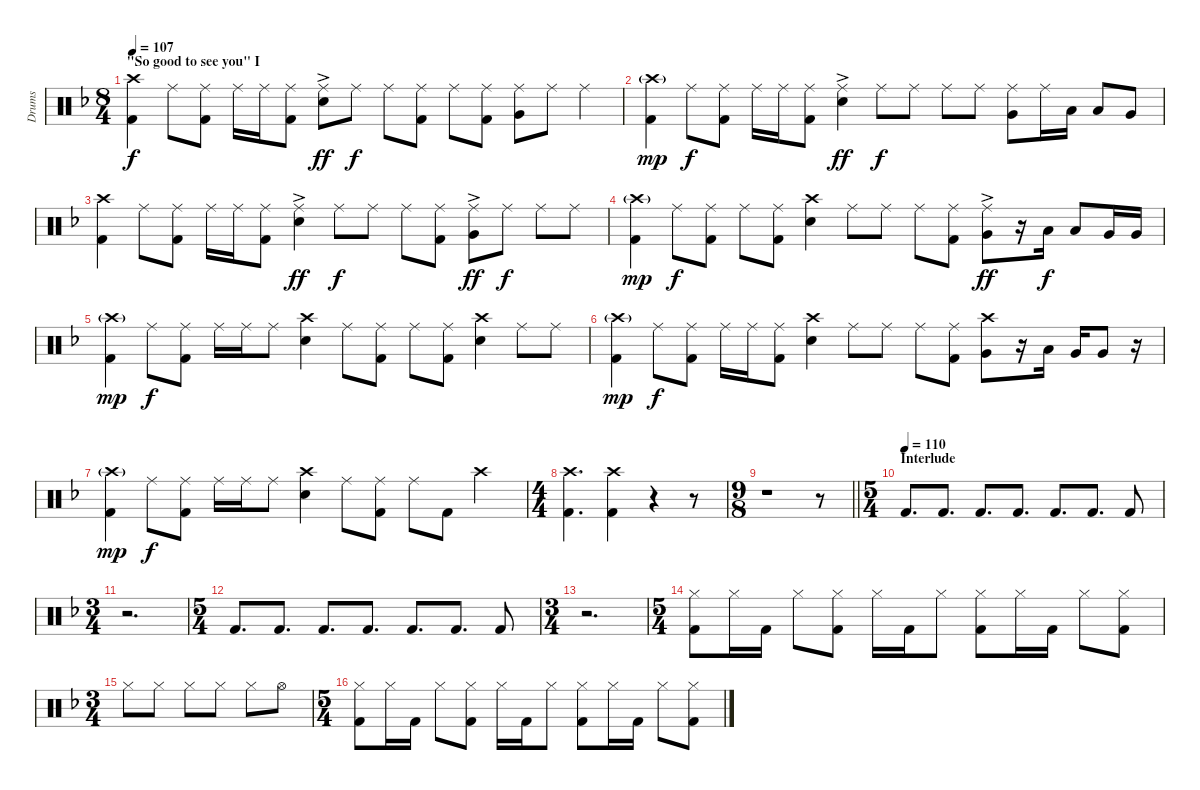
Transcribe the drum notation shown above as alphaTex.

\track ("Drums" "Drums") {instrument percussion}
\staff {score}
\articulation defaults
\ts (8 4)
\section ("" "\"So good to see you\" I")
\tempo 107
\clef neutral
\ks dminor
("Crash high (hit)" "Kick (hit) 2").4{dy f} "Ride (middle)".8 ("Ride (middle)" "Kick (hit) 2").8 "Ride (middle)".16 "Ride (middle)".16 ("Ride (middle)" "Kick (hit) 2").8 ("Ride (middle)"{ac} "Snare (hit) 2").8{dy ff} "Ride (middle)".8{dy f} "Ride (middle)".8 ("Ride (middle)" "Kick (hit) 2").8 "Ride (middle)".8 ("Ride (middle)" "Kick (hit) 2").8 ("Ride (middle)" "Very Low Tom (hit)").8 "Ride (middle)".8 "Ride (middle)".4 |
("Crash high (hit)"{g} "Kick (hit) 2").4{dy mp} "Ride (middle)".8{dy f} ("Ride (middle)" "Kick (hit) 2").8 "Ride (middle)".16 "Ride (middle)".16 ("Ride (middle)" "Kick (hit) 2").8 ("Ride (middle)"{ac} "Snare (hit) 2").4{dy ff} "Ride (middle)".8{dy f} "Ride (middle)".8 "Ride (middle)".8 "Ride (middle)".8 ("Ride (middle)" "Very Low Tom (hit)").8 "Ride (middle)".16 "Low Tom (hit)".16 "Low Tom (hit)".8 "Very Low Tom (hit)".8 |
("Crash high (hit)" "Kick (hit) 2").4 "Ride (middle)".8 ("Ride (middle)" "Kick (hit) 2").8 "Ride (middle)".16 "Ride (middle)".16 ("Ride (middle)" "Kick (hit) 2").8 ("Ride (middle)"{ac} "Snare (hit) 2").4{dy ff} "Ride (middle)".8{dy f} "Ride (middle)".8 "Ride (middle)".8 ("Ride (middle)" "Kick (hit) 2").8 ("Ride (middle)"{ac} "Very Low Tom (hit)").8{dy ff} "Ride (middle)".8{dy f} "Ride (middle)".8 "Ride (middle)".8 |
("Crash high (hit)"{g} "Kick (hit) 2").4{dy mp} "Ride (middle)".8{dy f} ("Ride (middle)" "Kick (hit) 2").8 "Ride (middle)".8 ("Ride (middle)" "Kick (hit) 2").8 ("Crash high (hit)" "Snare (hit) 2").4 "Ride (middle)".8 "Ride (middle)".8 "Ride (middle)".8 ("Ride (middle)" "Kick (hit) 2").8 ("Ride (middle)"{ac} "Very Low Tom (hit)").8{dy ff} r.16 "Low Tom (hit)".16{dy f} "Low Tom (hit)".8 "Very Low Tom (hit)".16 "Very Low Tom (hit)".16 |
("Crash high (hit)"{g} "Kick (hit) 2").4{dy mp} "Ride (middle)".8{dy f} ("Ride (middle)" "Kick (hit) 2").8 "Ride (middle)".16 "Ride (middle)".16 "Ride (middle)".8 ("Crash high (hit)" "Snare (hit) 2").4 "Ride (middle)".8 ("Ride (middle)" "Kick (hit) 2").8 "Ride (middle)".8 ("Ride (middle)" "Kick (hit) 2").8 ("Crash high (hit)" "Snare (hit) 2").4 "Ride (middle)".8 "Ride (middle)".8 |
("Crash high (hit)"{g} "Kick (hit) 2").4{dy mp} "Ride (middle)".8{dy f} ("Ride (middle)" "Kick (hit) 2").8 "Ride (middle)".16 "Ride (middle)".16 ("Ride (middle)" "Kick (hit) 2").8 ("Crash high (hit)" "Snare (hit) 2").4 "Ride (middle)".8 "Ride (middle)".8 "Ride (middle)".8 ("Ride (middle)" "Kick (hit) 2").8 ("Crash high (hit)" "Very Low Tom (hit)").8 r.16 "Low Tom (hit)".16 "Very Low Tom (hit)".16 "Very Low Tom (hit)".8 r.16 |
("Crash high (hit)"{g} "Kick (hit) 2").4{dy mp} "Ride (middle)".8{dy f} ("Ride (middle)" "Kick (hit) 2").8 "Ride (middle)".16 "Ride (middle)".16 "Ride (middle)".8 ("Crash high (hit)" "Snare (hit) 2").4 "Ride (middle)".8 ("Ride (middle)" "Kick (hit) 2").8 "Ride (middle)".8 "Kick (hit) 2".8 "Crash high (hit)".2 |
\ts (4 4)
("Crash high (hit)" "Kick (hit) 2").4{d} ("Crash high (hit)" "Kick (hit) 2").4 r.4 r.8 |
\ts (9 8)
\barLineRight lightlight
r.1 r.8 |
\ts (5 4)
\section ("" "Interlude")
\tempo (110)
"Kick (hit) 2".8{d beam merge} "Kick (hit) 2".8{d beam split} "Kick (hit) 2".8{d beam merge} "Kick (hit) 2".8{d beam split} "Kick (hit) 2".8{d beam merge} "Kick (hit) 2".8{d beam split} "Kick (hit) 2".8 |
\ts (3 4)
r.2{d} |
\ts (5 4)
"Kick (hit) 2".8{d} "Kick (hit) 2".8{d} "Kick (hit) 2".8{d beam merge} "Kick (hit) 2".8{d} "Kick (hit) 2".8{d} "Kick (hit) 2".8{d} "Kick (hit) 2".8 |
\ts (3 4)
r.2{d} |
\ts (5 4)
("Hi-Hat (closed)" "Kick (hit) 2").8 "Hi-Hat (closed)".16 "Kick (hit) 2".16 "Hi-Hat (closed)".8 ("Hi-Hat (closed)" "Kick (hit) 2").8 "Hi-Hat (closed)".16 "Kick (hit) 2".16 "Hi-Hat (closed)".8 ("Hi-Hat (closed)" "Kick (hit) 2").8 "Hi-Hat (closed)".16 "Kick (hit) 2".16 "Hi-Hat (closed)".8 ("Hi-Hat (closed)" "Kick (hit) 2").8 |
\ts (3 4)
"Hi-Hat (closed)".8 "Hi-Hat (closed)".8 "Hi-Hat (closed)".8 "Hi-Hat (closed)".8 "Hi-Hat (closed)".8 "Hi-Hat (open)".8 |
\ts (5 4)
("Hi-Hat (closed)" "Kick (hit) 2").8 "Hi-Hat (closed)".16 "Kick (hit) 2".16 "Hi-Hat (closed)".8 ("Hi-Hat (closed)" "Kick (hit) 2").8 "Hi-Hat (closed)".16 "Kick (hit) 2".16 "Hi-Hat (closed)".8 ("Hi-Hat (closed)" "Kick (hit) 2").8 "Hi-Hat (closed)".16 "Kick (hit) 2".16 "Hi-Hat (closed)".8 ("Hi-Hat (closed)" "Kick (hit) 2").8
